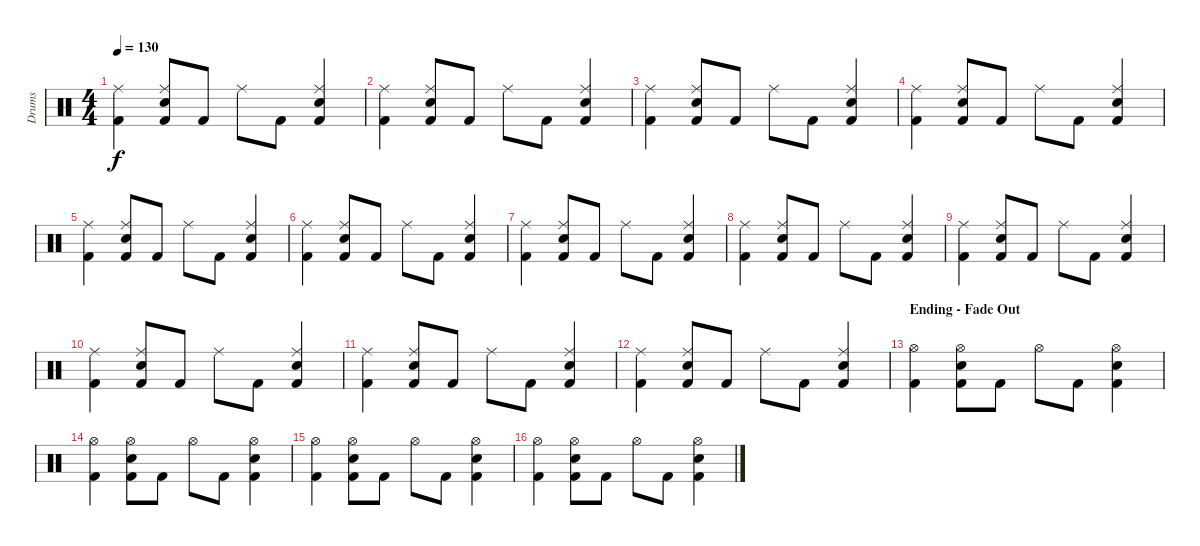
\track ("Drums" "Drums") {instrument percussion}
\staff {score}
\articulation defaults
\ts (4 4)
\tempo 130
\clef neutral
\ks c
("Kick (hit) 2" "Ride (middle)").4{dy f} ("Kick (hit) 2" "Snare (hit) 2" "Ride (middle)").8 "Kick (hit) 2".8 "Ride (middle)".8 "Kick (hit) 2".8 ("Kick (hit) 2" "Snare (hit) 2" "Ride (middle)").4 |
("Kick (hit) 2" "Ride (middle)").4 ("Kick (hit) 2" "Snare (hit) 2" "Ride (middle)").8 "Kick (hit) 2".8 "Ride (middle)".8 "Kick (hit) 2".8 ("Kick (hit) 2" "Snare (hit) 2" "Ride (middle)").4 |
("Kick (hit) 2" "Ride (middle)").4 ("Kick (hit) 2" "Snare (hit) 2" "Ride (middle)").8 "Kick (hit) 2".8 "Ride (middle)".8 "Kick (hit) 2".8 ("Kick (hit) 2" "Snare (hit) 2" "Ride (middle)").4 |
("Kick (hit) 2" "Ride (middle)").4 ("Kick (hit) 2" "Snare (hit) 2" "Ride (middle)").8 "Kick (hit) 2".8 "Ride (middle)".8 "Kick (hit) 2".8 ("Kick (hit) 2" "Snare (hit) 2" "Ride (middle)").4 |
("Kick (hit) 2" "Ride (middle)").4 ("Kick (hit) 2" "Snare (hit) 2" "Ride (middle)").8 "Kick (hit) 2".8 "Ride (middle)".8 "Kick (hit) 2".8 ("Kick (hit) 2" "Snare (hit) 2" "Ride (middle)").4 |
("Kick (hit) 2" "Ride (middle)").4 ("Kick (hit) 2" "Snare (hit) 2" "Ride (middle)").8 "Kick (hit) 2".8 "Ride (middle)".8 "Kick (hit) 2".8 ("Kick (hit) 2" "Snare (hit) 2" "Ride (middle)").4 |
("Kick (hit) 2" "Ride (middle)").4 ("Kick (hit) 2" "Snare (hit) 2" "Ride (middle)").8 "Kick (hit) 2".8 "Ride (middle)".8 "Kick (hit) 2".8 ("Kick (hit) 2" "Snare (hit) 2" "Ride (middle)").4 |
("Kick (hit) 2" "Ride (middle)").4 ("Kick (hit) 2" "Snare (hit) 2" "Ride (middle)").8 "Kick (hit) 2".8 "Ride (middle)".8 "Kick (hit) 2".8 ("Kick (hit) 2" "Snare (hit) 2" "Ride (middle)").4 |
("Kick (hit) 2" "Ride (middle)").4 ("Kick (hit) 2" "Snare (hit) 2" "Ride (middle)").8 "Kick (hit) 2".8 "Ride (middle)".8 "Kick (hit) 2".8 ("Kick (hit) 2" "Snare (hit) 2" "Ride (middle)").4 |
("Kick (hit) 2" "Ride (middle)").4 ("Kick (hit) 2" "Snare (hit) 2" "Ride (middle)").8 "Kick (hit) 2".8 "Ride (middle)".8 "Kick (hit) 2".8 ("Kick (hit) 2" "Snare (hit) 2" "Ride (middle)").4 |
("Kick (hit) 2" "Ride (middle)").4 ("Kick (hit) 2" "Snare (hit) 2" "Ride (middle)").8 "Kick (hit) 2".8 "Ride (middle)".8 "Kick (hit) 2".8 ("Kick (hit) 2" "Snare (hit) 2" "Ride (middle)").4 |
("Kick (hit) 2" "Ride (middle)").4 ("Kick (hit) 2" "Snare (hit) 2" "Ride (middle)").8 "Kick (hit) 2".8 "Ride (middle)".8 "Kick (hit) 2".8 ("Kick (hit) 2" "Snare (hit) 2" "Ride (middle)").4 |
\section ("" "Ending - Fade Out")
("Kick (hit) 2" "Hi-Hat (open)").4 ("Kick (hit) 2" "Hi-Hat (open)" "Snare (hit) 2").8 "Kick (hit) 2".8 "Hi-Hat (open)".8 "Kick (hit) 2".8 ("Kick (hit) 2" "Hi-Hat (open)" "Snare (hit) 2").4 |
("Kick (hit) 2" "Hi-Hat (open)").4 ("Kick (hit) 2" "Hi-Hat (open)" "Snare (hit) 2").8 "Kick (hit) 2".8 "Hi-Hat (open)".8 "Kick (hit) 2".8 ("Kick (hit) 2" "Hi-Hat (open)" "Snare (hit) 2").4 |
("Kick (hit) 2" "Hi-Hat (open)").4 ("Kick (hit) 2" "Hi-Hat (open)" "Snare (hit) 2").8 "Kick (hit) 2".8 "Hi-Hat (open)".8 "Kick (hit) 2".8 ("Kick (hit) 2" "Hi-Hat (open)" "Snare (hit) 2").4 |
("Kick (hit) 2" "Hi-Hat (open)").4 ("Kick (hit) 2" "Hi-Hat (open)" "Snare (hit) 2").8 "Kick (hit) 2".8 "Hi-Hat (open)".8 "Kick (hit) 2".8 ("Kick (hit) 2" "Hi-Hat (open)" "Snare (hit) 2").4
